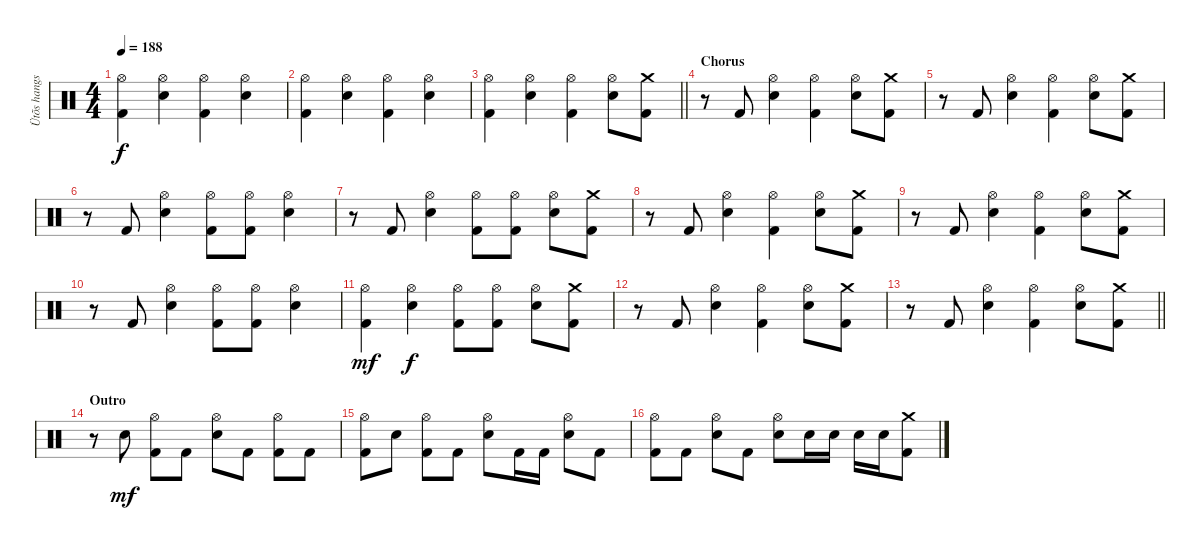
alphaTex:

\track ("Ütõs hangszer" "Ütõs hangs") {instrument percussion}
\staff {score}
\articulation defaults
\ts (4 4)
\tempo 188
\clef neutral
\ks c
("Hi-Hat (open)" "Kick (hit) 2").4{dy f} ("Hi-Hat (open)" "Electric Snare (hit)").4 ("Hi-Hat (open)" "Kick (hit) 2").4 ("Hi-Hat (open)" "Electric Snare (hit)").4 |
("Hi-Hat (open)" "Kick (hit) 2").4 ("Hi-Hat (open)" "Electric Snare (hit)").4 ("Hi-Hat (open)" "Kick (hit) 2").4 ("Hi-Hat (open)" "Electric Snare (hit)").4 |
\barLineRight lightlight
("Hi-Hat (open)" "Kick (hit) 2").4 ("Hi-Hat (open)" "Electric Snare (hit)").4 ("Hi-Hat (open)" "Kick (hit) 2").4 ("Hi-Hat (open)" "Electric Snare (hit)").8 ("Crash medium (hit)" "Kick (hit) 2").8 |
\section ("" "Chorus")
r.8 "Kick (hit) 2".8 ("Hi-Hat (open)" "Electric Snare (hit)").4 ("Hi-Hat (open)" "Kick (hit) 2").4 ("Hi-Hat (open)" "Electric Snare (hit)").8 ("Crash medium (hit)" "Kick (hit) 2").8 |
r.8 "Kick (hit) 2".8 ("Hi-Hat (open)" "Electric Snare (hit)").4 ("Hi-Hat (open)" "Kick (hit) 2").4 ("Hi-Hat (open)" "Electric Snare (hit)").8 ("Crash medium (hit)" "Kick (hit) 2").8 |
r.8 "Kick (hit) 2".8 ("Hi-Hat (open)" "Electric Snare (hit)").4 ("Hi-Hat (open)" "Kick (hit) 2").8 ("Hi-Hat (open)" "Kick (hit) 2").8 ("Hi-Hat (open)" "Electric Snare (hit)").4 |
r.8 "Kick (hit) 2".8 ("Hi-Hat (open)" "Electric Snare (hit)").4 ("Hi-Hat (open)" "Kick (hit) 2").8 ("Hi-Hat (open)" "Kick (hit) 2").8 ("Hi-Hat (open)" "Electric Snare (hit)").8 ("Crash medium (hit)" "Kick (hit) 2").8 |
r.8 "Kick (hit) 2".8 ("Hi-Hat (open)" "Electric Snare (hit)").4 ("Hi-Hat (open)" "Kick (hit) 2").4 ("Hi-Hat (open)" "Electric Snare (hit)").8 ("Crash medium (hit)" "Kick (hit) 2").8 |
r.8 "Kick (hit) 2".8 ("Hi-Hat (open)" "Electric Snare (hit)").4 ("Hi-Hat (open)" "Kick (hit) 2").4 ("Hi-Hat (open)" "Electric Snare (hit)").8 ("Crash medium (hit)" "Kick (hit) 2").8 |
r.8 "Kick (hit) 2".8 ("Hi-Hat (open)" "Electric Snare (hit)").4 ("Hi-Hat (open)" "Kick (hit) 2").8 ("Hi-Hat (open)" "Kick (hit) 2").8 ("Hi-Hat (open)" "Electric Snare (hit)").4 |
("Hi-Hat (open)" "Kick (hit) 2").4{dy mf} ("Hi-Hat (open)" "Electric Snare (hit)").4{dy f} ("Hi-Hat (open)" "Kick (hit) 2").8 ("Hi-Hat (open)" "Kick (hit) 2").8 ("Hi-Hat (open)" "Electric Snare (hit)").8 ("Crash medium (hit)" "Kick (hit) 2").8 |
r.8 "Kick (hit) 2".8 ("Hi-Hat (open)" "Electric Snare (hit)").4 ("Hi-Hat (open)" "Kick (hit) 2").4 ("Hi-Hat (open)" "Electric Snare (hit)").8 ("Crash medium (hit)" "Kick (hit) 2").8 |
\barLineRight lightlight
r.8 "Kick (hit) 2".8 ("Hi-Hat (open)" "Electric Snare (hit)").4 ("Hi-Hat (open)" "Kick (hit) 2").4 ("Hi-Hat (open)" "Electric Snare (hit)").8 ("Crash medium (hit)" "Kick (hit) 2").8 |
\section ("" "Outro")
r.8 "Electric Snare (hit)".8{dy mf} ("Hi-Hat (open)" "Kick (hit) 2").8 "Kick (hit) 2".8 ("Hi-Hat (open)" "Electric Snare (hit)").8 "Kick (hit) 2".8 ("Hi-Hat (open)" "Kick (hit) 2").8 "Kick (hit) 2".8 |
("Hi-Hat (open)" "Kick (hit) 2").8 "Electric Snare (hit)".8 ("Hi-Hat (open)" "Kick (hit) 2").8 "Kick (hit) 2".8 ("Hi-Hat (open)" "Electric Snare (hit)").8 "Kick (hit) 2".16 "Kick (hit) 2".16 ("Hi-Hat (open)" "Electric Snare (hit)").8 "Kick (hit) 2".8 |
("Hi-Hat (open)" "Kick (hit) 2").8 "Kick (hit) 2".8 ("Hi-Hat (open)" "Electric Snare (hit)").8 "Kick (hit) 2".8 ("Hi-Hat (open)" "Electric Snare (hit)").8 "Electric Snare (hit)".16 "Electric Snare (hit)".16 "Electric Snare (hit)".16 "Electric Snare (hit)".16 ("Crash medium (hit)" "Kick (hit) 2").8
